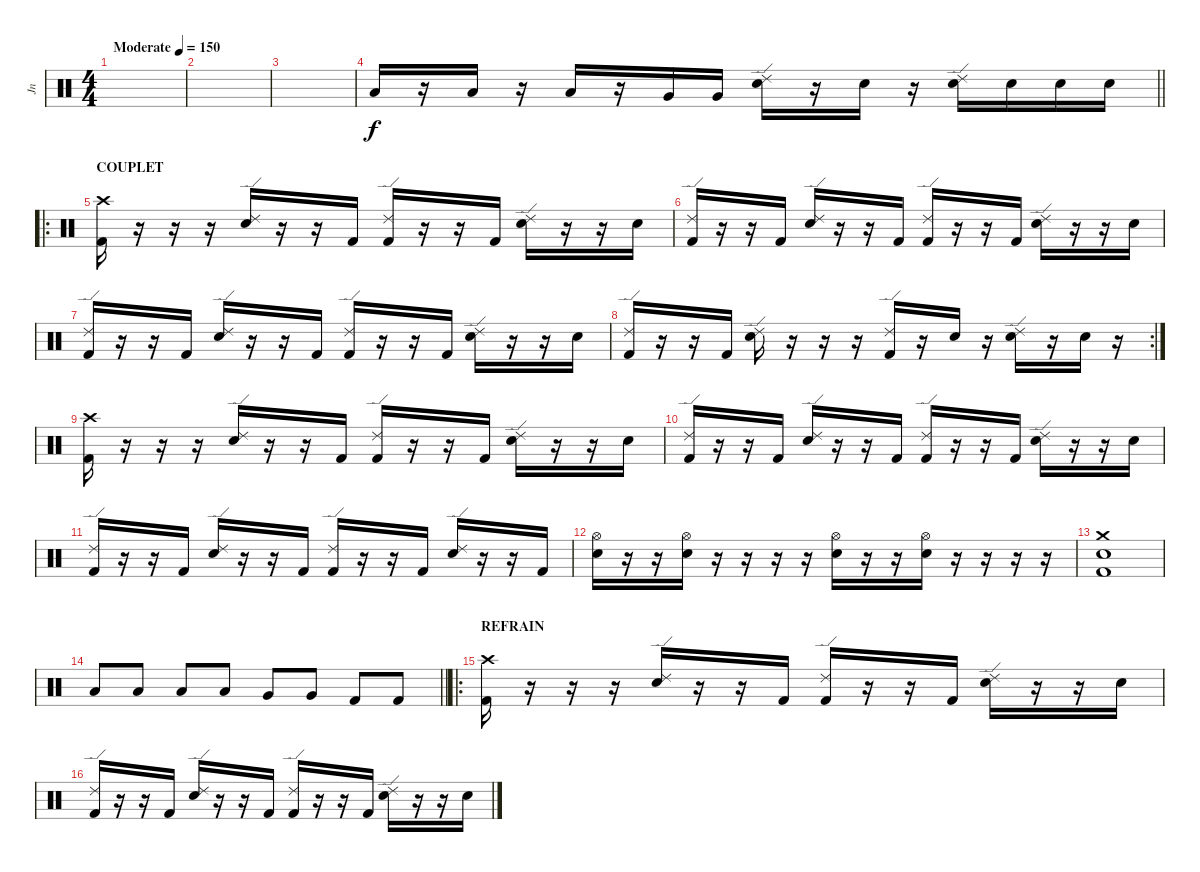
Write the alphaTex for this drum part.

\track ("Jn" "Jn") {instrument percussion}
\staff {score}
\articulation defaults
\ts (4 4)
\tempo (150 "Moderate")
\clef neutral
\ks c
|
|
|
\barLineRight lightlight "Low Tom (hit)".16
r.16 "Low Tom (hit)".16 r.16 "Low Tom (hit)".16 r.16 "Very Low Tom (hit)".16 "Very Low Tom (hit)".16 ("Ride (edge) 2" "Electric Snare (hit)").16 r.16 "Electric Snare (hit)".16 r.16 ("Ride (edge) 2" "Electric Snare (hit)").16 "Electric Snare (hit)".16 "Electric Snare (hit)".16 "Electric Snare (hit)".16 |
\ro
\section ("" "COUPLET")
("Crash high (hit)" "Kick (hit) 2").16 r.16 r.16 r.16 ("Ride (edge) 2" "Electric Snare (hit)").16 r.16 r.16 "Kick (hit) 2".16 ("Ride (edge) 2" "Kick (hit) 2").16 r.16 r.16 "Kick (hit) 2".16 ("Ride (edge) 2" "Electric Snare (hit)").16 r.16 r.16 "Electric Snare (hit)".16 |
("Ride (edge) 2" "Kick (hit) 2").16 r.16 r.16 "Kick (hit) 2".16 ("Ride (edge) 2" "Electric Snare (hit)").16 r.16 r.16 "Kick (hit) 2".16 ("Ride (edge) 2" "Kick (hit) 2").16 r.16 r.16 "Kick (hit) 2".16 ("Ride (edge) 2" "Electric Snare (hit)").16 r.16 r.16 "Electric Snare (hit)".16 |
("Ride (edge) 2" "Kick (hit) 2").16 r.16 r.16 "Kick (hit) 2".16 ("Ride (edge) 2" "Electric Snare (hit)").16 r.16 r.16 "Kick (hit) 2".16 ("Ride (edge) 2" "Kick (hit) 2").16 r.16 r.16 "Kick (hit) 2".16 ("Ride (edge) 2" "Electric Snare (hit)").16 r.16 r.16 "Electric Snare (hit)".16 |
\rc 2
("Ride (edge) 2" "Kick (hit) 2").16 r.16 r.16 "Kick (hit) 2".16 ("Ride (edge) 2" "Electric Snare (hit)").16 r.16 r.16 r.16 ("Ride (edge) 2" "Kick (hit) 2").16 r.16 "Electric Snare (hit)".16 r.16 ("Ride (edge) 2" "Electric Snare (hit)").16 r.16 "Electric Snare (hit)".16 r.16 |
("Crash high (hit)" "Kick (hit) 2").16 r.16 r.16 r.16 ("Ride (edge) 2" "Electric Snare (hit)").16 r.16 r.16 "Kick (hit) 2".16 ("Ride (edge) 2" "Kick (hit) 2").16 r.16 r.16 "Kick (hit) 2".16 ("Ride (edge) 2" "Electric Snare (hit)").16 r.16 r.16 "Electric Snare (hit)".16 |
("Ride (edge) 2" "Kick (hit) 2").16 r.16 r.16 "Kick (hit) 2".16 ("Ride (edge) 2" "Electric Snare (hit)").16 r.16 r.16 "Kick (hit) 2".16 ("Ride (edge) 2" "Kick (hit) 2").16 r.16 r.16 "Kick (hit) 2".16 ("Ride (edge) 2" "Electric Snare (hit)").16 r.16 r.16 "Electric Snare (hit)".16 |
("Ride (edge) 2" "Kick (hit) 2").16 r.16 r.16 "Kick (hit) 2".16 ("Ride (edge) 2" "Electric Snare (hit)").16 r.16 r.16 "Kick (hit) 2".16 ("Ride (edge) 2" "Kick (hit) 2").16 r.16 r.16 "Kick (hit) 2".16 ("Ride (edge) 2" "Electric Snare (hit)").16 r.16 r.16 "Kick (hit) 2".16 |
("Hi-Hat (open)" "Electric Snare (hit)").16 r.16 r.16 ("Hi-Hat (open)" "Electric Snare (hit)").16 r.16 r.16 r.16 r.16 ("Hi-Hat (open)" "Electric Snare (hit)").16 r.16 r.16 ("Hi-Hat (open)" "Electric Snare (hit)").16 r.16 r.16 r.16 r.16 |
("Electric Snare (hit)" "Kick (hit) 2" "Crash medium (hit)").1 |
\barLineRight lightlight "Low Tom (hit)".8 "Low Tom (hit)".8 "Low Tom (hit)".8 "Low Tom (hit)".8 "Very Low Tom (hit)".8 "Very Low Tom (hit)".8 "Kick (hit) 2".8 "Kick (hit) 2".8
|
\ro
\section ("" "REFRAIN")
("Crash high (hit)" "Kick (hit) 2").16 r.16 r.16 r.16 ("Ride (edge) 2" "Electric Snare (hit)").16 r.16 r.16 "Kick (hit) 2".16 ("Ride (edge) 2" "Kick (hit) 2").16 r.16 r.16 "Kick (hit) 2".16 ("Ride (edge) 2" "Electric Snare (hit)").16 r.16 r.16 "Electric Snare (hit)".16 |
("Ride (edge) 2" "Kick (hit) 2").16 r.16 r.16 "Kick (hit) 2".16 ("Ride (edge) 2" "Electric Snare (hit)").16 r.16 r.16 "Kick (hit) 2".16 ("Ride (edge) 2" "Kick (hit) 2").16 r.16 r.16 "Kick (hit) 2".16 ("Ride (edge) 2" "Electric Snare (hit)").16 r.16 r.16 "Electric Snare (hit)".16
